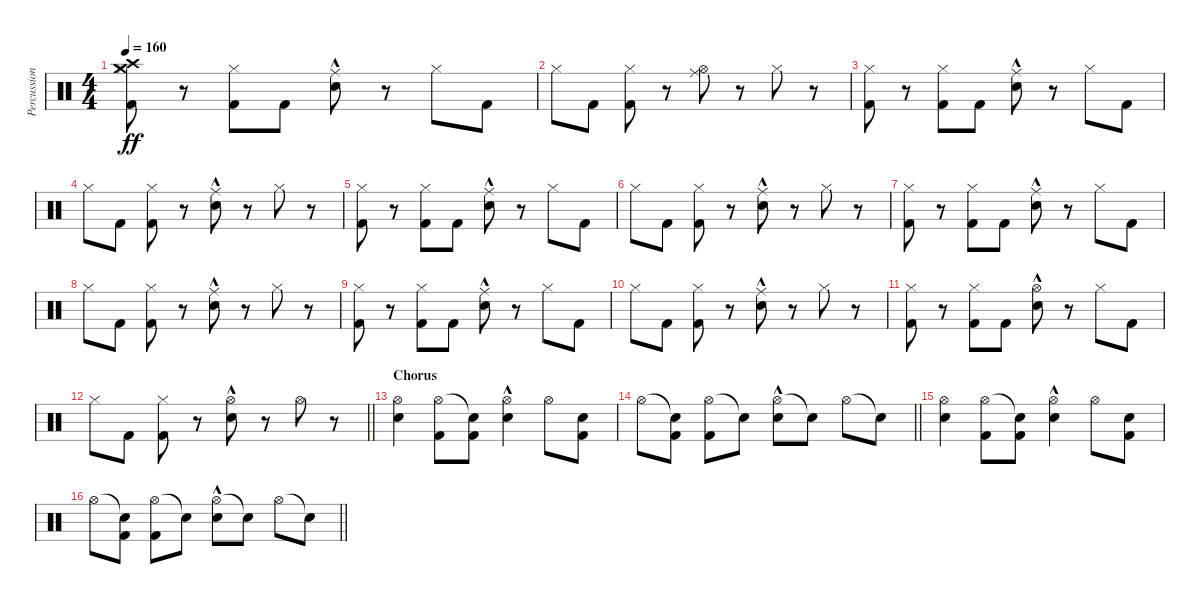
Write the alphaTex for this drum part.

\track ("Percussion" "Percussion") {instrument percussion}
\staff {score}
\articulation defaults
\ts (4 4)
\tempo 160
\clef neutral
\ks c
("Hi-Hat (closed)" "Kick (hit) 2" "Crash high (hit)" "Crash medium (hit)").8{dy ff} r.8 ("Hi-Hat (closed)" "Kick (hit) 2").8 "Kick (hit) 2".8 ("Ride (middle)"{hac} "Electric Snare (hit)"{hac}).8 r.8 "Hi-Hat (closed)".8 "Kick (hit) 2".8 |
"Hi-Hat (closed)".8 "Kick (hit) 2".8 ("Hi-Hat (closed)" "Kick (hit) 2").8 r.8 ("Hi-Hat (open)" "Ride (middle)").8 r.8 "Hi-Hat (closed)".8 r.8 |
("Hi-Hat (closed)" "Kick (hit) 2").8 r.8 ("Hi-Hat (closed)" "Kick (hit) 2").8 "Kick (hit) 2".8 ("Ride (middle)" "Electric Snare (hit)"{hac}).8 r.8 "Hi-Hat (closed)".8 "Kick (hit) 2".8 |
"Hi-Hat (closed)".8 "Kick (hit) 2".8 ("Hi-Hat (closed)" "Kick (hit) 2").8 r.8 ("Ride (middle)" "Electric Snare (hit)"{hac}).8 r.8 "Hi-Hat (closed)".8 r.8 |
("Hi-Hat (closed)" "Kick (hit) 2").8 r.8 ("Hi-Hat (closed)" "Kick (hit) 2").8 "Kick (hit) 2".8 ("Ride (middle)" "Electric Snare (hit)"{hac}).8 r.8 "Hi-Hat (closed)".8 "Kick (hit) 2".8 |
"Hi-Hat (closed)".8 "Kick (hit) 2".8 ("Hi-Hat (closed)" "Kick (hit) 2").8 r.8 ("Ride (middle)" "Electric Snare (hit)"{hac}).8 r.8 "Hi-Hat (closed)".8 r.8 |
("Hi-Hat (closed)" "Kick (hit) 2").8 r.8 ("Hi-Hat (closed)" "Kick (hit) 2").8 "Kick (hit) 2".8 ("Ride (middle)" "Electric Snare (hit)"{hac}).8 r.8 "Hi-Hat (closed)".8 "Kick (hit) 2".8 |
"Hi-Hat (closed)".8 "Kick (hit) 2".8 ("Hi-Hat (closed)" "Kick (hit) 2").8 r.8 ("Ride (middle)" "Electric Snare (hit)"{hac}).8 r.8 "Hi-Hat (closed)".8 r.8 |
("Hi-Hat (closed)" "Kick (hit) 2").8 r.8 ("Hi-Hat (closed)" "Kick (hit) 2").8 "Kick (hit) 2".8 ("Ride (middle)" "Electric Snare (hit)"{hac}).8 r.8 "Hi-Hat (closed)".8 "Kick (hit) 2".8 |
"Hi-Hat (closed)".8 "Kick (hit) 2".8 ("Hi-Hat (closed)" "Kick (hit) 2").8 r.8 ("Ride (middle)" "Electric Snare (hit)"{hac}).8 r.8 "Hi-Hat (closed)".8 r.8 |
("Hi-Hat (closed)" "Kick (hit) 2").8 r.8 ("Hi-Hat (closed)" "Kick (hit) 2").8 "Kick (hit) 2".8 ("Hi-Hat (open)"{hac} "Electric Snare (hit)"{hac}).8 r.8 "Hi-Hat (closed)".8 "Kick (hit) 2".8 |
\barLineRight lightlight "Hi-Hat (closed)".8 "Kick (hit) 2".8
("Hi-Hat (closed)" "Kick (hit) 2").8 r.8 ("Hi-Hat (open)"{hac} "Electric Snare (hit)"{hac}).8 r.8 "Hi-Hat (open)".8 r.8 |
\section ("" "Chorus")
("Hi-Hat (open)" "Electric Snare (hit)").4 ("Hi-Hat (open)" "Kick (hit) 2").8 ("Snare (hit)"{t} "Kick (hit) 2").8 ("Hi-Hat (open)"{hac} "Electric Snare (hit)"{hac}).4 "Hi-Hat (open)".8 ("Electric Snare (hit)" "Kick (hit) 2").8 |
\barLineRight lightlight "Hi-Hat (open)".8
("Snare (hit)"{t} "Kick (hit) 2").8 ("Hi-Hat (open)" "Kick (hit) 2").8 "Snare (hit)"{t}.8 ("Hi-Hat (open)"{hac} "Electric Snare (hit)"{hac}).8 "Snare (hit)"{t}.8 "Hi-Hat (open)".8 "Snare (hit)"{t}.8 |
("Hi-Hat (open)" "Electric Snare (hit)").4 ("Hi-Hat (open)" "Kick (hit) 2").8 ("Snare (hit)"{t} "Kick (hit) 2").8 ("Hi-Hat (open)"{hac} "Electric Snare (hit)"{hac}).4 "Hi-Hat (open)".8 ("Electric Snare (hit)" "Kick (hit) 2").8 |
\barLineRight lightlight "Hi-Hat (open)".8
("Snare (hit)"{t} "Kick (hit) 2").8 ("Hi-Hat (open)" "Kick (hit) 2").8 "Snare (hit)"{t}.8 ("Hi-Hat (open)"{hac} "Electric Snare (hit)"{hac}).8 "Snare (hit)"{t}.8 "Hi-Hat (open)".8 "Snare (hit)"{t}.8
